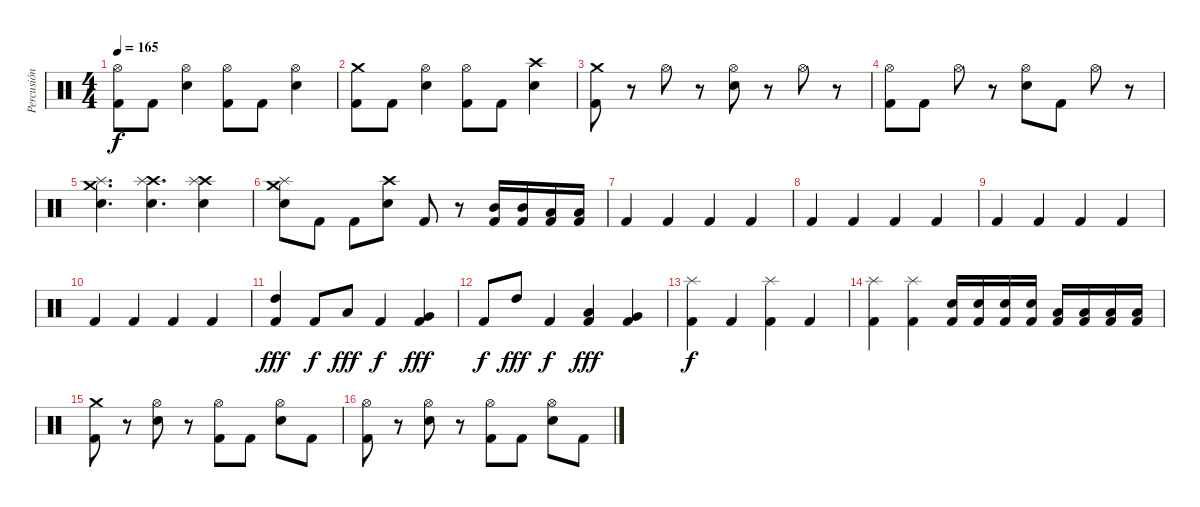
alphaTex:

\track ("Percusión" "Percusión") {instrument percussion}
\staff {score}
\articulation defaults
\ts (4 4)
\tempo 165
\clef neutral
\ks c
("Hi-Hat (open)" "Kick (hit) 2").8{dy f} "Kick (hit) 2".8 ("Hi-Hat (open)" "Electric Snare (hit)").4 ("Hi-Hat (open)" "Kick (hit) 2").8 "Kick (hit) 2".8 ("Hi-Hat (open)" "Electric Snare (hit)").4 |
("Crash medium (hit)" "Kick (hit) 2").8 "Kick (hit) 2".8 ("Hi-Hat (open)" "Electric Snare (hit)").4 ("Hi-Hat (open)" "Kick (hit) 2").8 "Kick (hit) 2".8 ("Crash high (hit)" "Electric Snare (hit)").4 |
("Crash medium (hit)" "Kick (hit) 2").8 r.8 "Hi-Hat (open)".8 r.8 ("Hi-Hat (open)" "Electric Snare (hit)").8 r.8 "Hi-Hat (open)".8 r.8 |
("Hi-Hat (open)" "Kick (hit) 2").8 "Kick (hit) 2".8 "Hi-Hat (open)".8 r.8 ("Hi-Hat (open)" "Electric Snare (hit)").8 "Kick (hit) 2".8 "Hi-Hat (open)".8 r.8 |
("Crash medium (hit)" "Splash (hit)" "Electric Snare (hit)").4{d} ("Crash high (hit)" "Splash (hit)" "Electric Snare (hit)").4{d} ("Crash high (hit)" "Splash (hit)" "Electric Snare (hit)").4 |
("Crash medium (hit)" "Splash (hit)" "Electric Snare (hit)").8 "Kick (hit) 2".8 "Kick (hit) 2".8 ("Crash high (hit)" "Electric Snare (hit)").8 "Kick (hit) 2".8 r.8 ("Mid Tom (hit)" "Kick (hit) 2").16 ("Mid Tom (hit)" "Kick (hit) 2").16 ("Low Tom (hit)" "Kick (hit) 2").16 ("Low Tom (hit)" "Kick (hit) 2").16 |
"Kick (hit) 2".4 "Kick (hit) 2".4 "Kick (hit) 2".4 "Kick (hit) 2".4 |
"Kick (hit) 2".4 "Kick (hit) 2".4 "Kick (hit) 2".4 "Kick (hit) 2".4 |
"Kick (hit) 2".4 "Kick (hit) 2".4 "Kick (hit) 2".4 "Kick (hit) 2".4 |
"Kick (hit) 2".4 "Kick (hit) 2".4 "Kick (hit) 2".4 "Kick (hit) 2".4 |
("High Tom (hit)" "Kick (hit) 2").4{dy fff} "Kick (hit) 2".8{dy f} "Low Tom (hit)".8{dy fff} "Kick (hit) 2".4{dy f} ("Very Low Tom (hit)" "Kick (hit) 2").4{dy fff} |
"Kick (hit) 2".8{dy f} "High Tom (hit)".8{dy fff} "Kick (hit) 2".4{dy f} ("Low Tom (hit)" "Kick (hit) 2").4{dy fff} ("Very Low Tom (hit)" "Kick (hit) 2").4 |
("Splash (hit)" "Kick (hit) 2").4{dy f} "Kick (hit) 2".4 ("Splash (hit)" "Kick (hit) 2").4 "Kick (hit) 2".4 |
("Splash (hit)" "Kick (hit) 2").4 ("Splash (hit)" "Kick (hit) 2").4 ("Electric Snare (hit)" "Kick (hit) 2").16 ("Electric Snare (hit)" "Kick (hit) 2").16 ("Electric Snare (hit)" "Kick (hit) 2").16 ("Electric Snare (hit)" "Kick (hit) 2").16 ("Low Tom (hit)" "Kick (hit) 2").16 ("Low Tom (hit)" "Kick (hit) 2").16 ("Low Tom (hit)" "Kick (hit) 2").16 ("Low Tom (hit)" "Kick (hit) 2").16 |
("Crash medium (hit)" "Kick (hit) 2").8 r.8 ("Hi-Hat (open)" "Electric Snare (hit)").8 r.8 ("Hi-Hat (open)" "Kick (hit) 2").8 "Kick (hit) 2".8 ("Hi-Hat (open)" "Electric Snare (hit)").8 "Kick (hit) 2".8 |
("Hi-Hat (open)" "Kick (hit) 2").8 r.8 ("Hi-Hat (open)" "Electric Snare (hit)").8 r.8 ("Hi-Hat (open)" "Kick (hit) 2").8 "Kick (hit) 2".8 ("Hi-Hat (open)" "Electric Snare (hit)").8 "Kick (hit) 2".8
